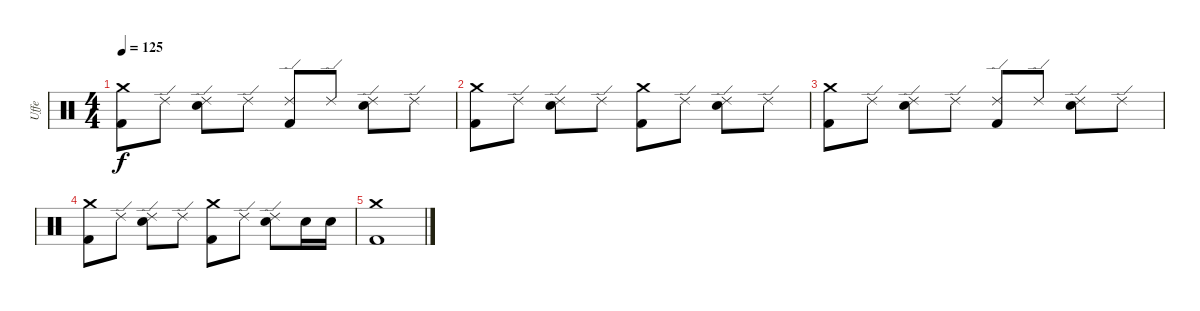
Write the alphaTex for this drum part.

\track ("Uffe" "Uffe") {instrument percussion}
\staff {score}
\articulation defaults
\ts (4 4)
\tempo 125
\clef neutral
\ks c
("Crash medium (hit)" "Kick (hit) 2").8{dy f} "Ride (edge) 2".8 ("Ride (edge) 2" "Electric Snare (hit)").8 "Ride (edge) 2".8 ("Ride (edge) 2" "Kick (hit) 2").8 "Ride (edge) 2".8 ("Ride (edge) 2" "Electric Snare (hit)").8 "Ride (edge) 2".8 |
("Crash medium (hit)" "Kick (hit) 2").8 "Ride (edge) 2".8 ("Ride (edge) 2" "Electric Snare (hit)").8 "Ride (edge) 2".8 ("Crash medium (hit)" "Kick (hit) 2").8 "Ride (edge) 2".8 ("Ride (edge) 2" "Electric Snare (hit)").8 "Ride (edge) 2".8 |
("Crash medium (hit)" "Kick (hit) 2").8 "Ride (edge) 2".8 ("Ride (edge) 2" "Electric Snare (hit)").8 "Ride (edge) 2".8 ("Ride (edge) 2" "Kick (hit) 2").8 "Ride (edge) 2".8 ("Ride (edge) 2" "Electric Snare (hit)").8 "Ride (edge) 2".8 |
("Crash medium (hit)" "Kick (hit) 2").8 "Ride (edge) 2".8 ("Ride (edge) 2" "Electric Snare (hit)").8 "Ride (edge) 2".8 ("Crash medium (hit)" "Kick (hit) 2").8 "Ride (edge) 2".8 ("Ride (edge) 2" "Electric Snare (hit)").8 "Electric Snare (hit)".16 "Electric Snare (hit)".16 |
("Crash medium (hit)" "Kick (hit) 2").1
